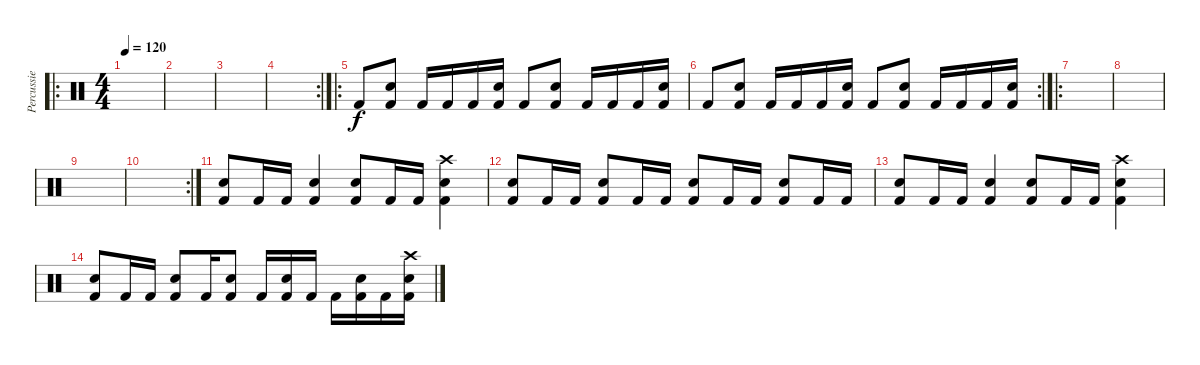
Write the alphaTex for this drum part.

\track ("Percussie" "Percussie") {instrument percussion}
\staff {score}
\articulation defaults
\ro
\ts (4 4)
\tempo 120
\clef neutral
\ks c
|
|
|
\rc 2
|
\ro "Kick (hit) 2".8
("Snare (hit) 2" "Kick (hit) 2").8 "Kick (hit) 2".16 "Kick (hit) 2".16 "Kick (hit) 2".16 ("Snare (hit) 2" "Kick (hit) 2").16 "Kick (hit) 2".8 ("Snare (hit) 2" "Kick (hit) 2").8 "Kick (hit) 2".16 "Kick (hit) 2".16 "Kick (hit) 2".16 ("Snare (hit) 2" "Kick (hit) 2").16 |
\rc 2 "Kick (hit) 2".8
("Snare (hit) 2" "Kick (hit) 2").8 "Kick (hit) 2".16 "Kick (hit) 2".16 "Kick (hit) 2".16 ("Snare (hit) 2" "Kick (hit) 2").16 "Kick (hit) 2".8 ("Snare (hit) 2" "Kick (hit) 2").8 "Kick (hit) 2".16 "Kick (hit) 2".16 "Kick (hit) 2".16 ("Snare (hit) 2" "Kick (hit) 2").16 |
\ro
|
|
|
\rc 2
|
("Snare (hit) 2" "Kick (hit) 2").8 "Kick (hit) 2".16 "Kick (hit) 2".16 ("Snare (hit) 2" "Kick (hit) 2").4 ("Snare (hit) 2" "Kick (hit) 2").8 "Kick (hit) 2".16 "Kick (hit) 2".16 ("Crash high (hit)" "Snare (hit) 2" "Kick (hit) 2").4 |
("Snare (hit) 2" "Kick (hit) 2").8 "Kick (hit) 2".16 "Kick (hit) 2".16 ("Snare (hit) 2" "Kick (hit) 2").8 "Kick (hit) 2".16 "Kick (hit) 2".16 ("Snare (hit) 2" "Kick (hit) 2").8 "Kick (hit) 2".16 "Kick (hit) 2".16 ("Snare (hit) 2" "Kick (hit) 2").8 "Kick (hit) 2".16 "Kick (hit) 2".16 |
("Snare (hit) 2" "Kick (hit) 2").8 "Kick (hit) 2".16 "Kick (hit) 2".16 ("Snare (hit) 2" "Kick (hit) 2").4 ("Snare (hit) 2" "Kick (hit) 2").8 "Kick (hit) 2".16 "Kick (hit) 2".16 ("Crash high (hit)" "Snare (hit) 2" "Kick (hit) 2").4 |
("Snare (hit) 2" "Kick (hit) 2").8 "Kick (hit) 2".16 "Kick (hit) 2".16 ("Snare (hit) 2" "Kick (hit) 2").8 "Kick (hit) 2".16 ("Snare (hit) 2" "Kick (hit) 2").8 "Kick (hit) 2".16 ("Snare (hit) 2" "Kick (hit) 2").16 "Kick (hit) 2".16 "Kick (hit) 2".16 ("Snare (hit) 2" "Kick (hit) 2").16 "Kick (hit) 2".16 ("Crash high (hit)" "Snare (hit) 2" "Kick (hit) 2").16
